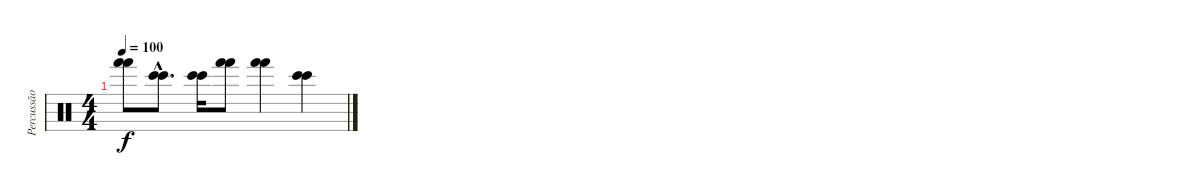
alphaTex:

\track ("Percussão" "Percussão") {instrument percussion}
\staff {score}
\articulation defaults
\ts (4 4)
\tempo 100
\clef neutral
\ks c
("Hand (hit)" "Hand (hit)").8{dy f} ("Bongo High (hit)"{hac} "Bongo High (hit)"{hac}).8{d} ("Bongo High (hit)" "Bongo High (hit)").16 ("Hand (hit)" "Hand (hit)").8 ("Hand (hit)" "Hand (hit)").4 ("Bongo High (hit)" "Bongo High (hit)").4
